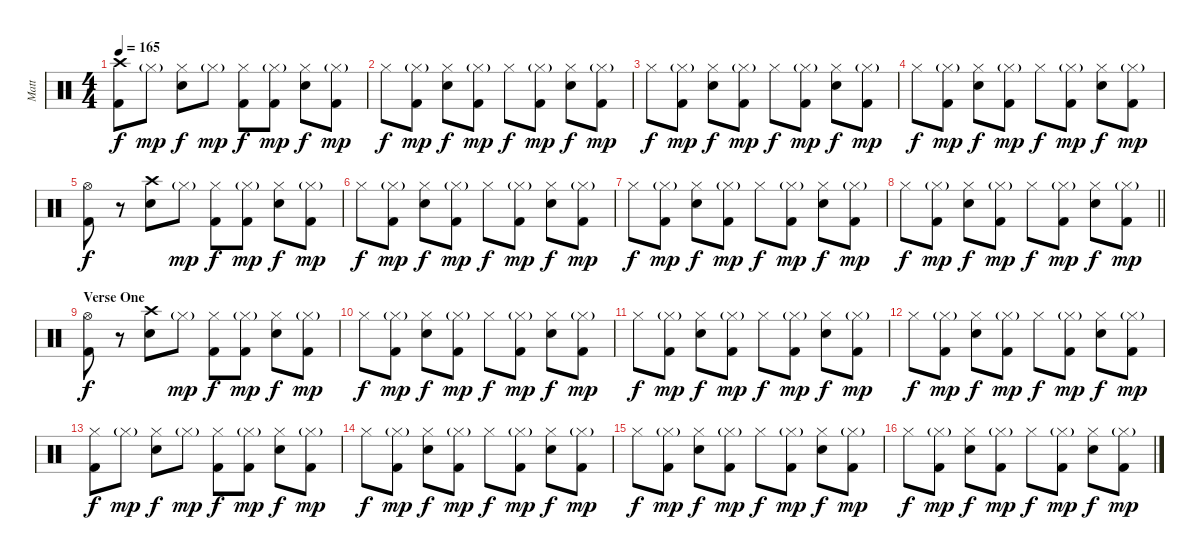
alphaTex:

\track ("Matt" "Matt") {instrument percussion}
\staff {score}
\articulation defaults
\ts (4 4)
\tempo 165
\clef neutral
\ks c
("Crash high (hit)" "Kick (hit) 2").8{dy f} "Hi-Hat (closed)"{g}.8{dy mp} ("Hi-Hat (closed)" "Snare (hit) 2").8{dy f} "Hi-Hat (closed)"{g}.8{dy mp} ("Hi-Hat (closed)" "Kick (hit) 2").8{dy f} ("Hi-Hat (closed)"{g} "Kick (hit) 2").8{dy mp} ("Hi-Hat (closed)" "Snare (hit) 2").8{dy f} ("Hi-Hat (closed)"{g} "Kick (hit) 2").8{dy mp} |
"Hi-Hat (closed)".8{dy f} ("Hi-Hat (closed)"{g} "Kick (hit) 2").8{dy mp} ("Hi-Hat (closed)" "Snare (hit) 2").8{dy f} ("Hi-Hat (closed)"{g} "Kick (hit) 2").8{dy mp} "Hi-Hat (closed)".8{dy f} ("Hi-Hat (closed)"{g} "Kick (hit) 2").8{dy mp} ("Hi-Hat (closed)" "Snare (hit) 2").8{dy f} ("Hi-Hat (closed)"{g} "Kick (hit) 2").8{dy mp} |
"Hi-Hat (closed)".8{dy f} ("Hi-Hat (closed)"{g} "Kick (hit) 2").8{dy mp} ("Hi-Hat (closed)" "Snare (hit) 2").8{dy f} ("Hi-Hat (closed)"{g} "Kick (hit) 2").8{dy mp} "Hi-Hat (closed)".8{dy f} ("Hi-Hat (closed)"{g} "Kick (hit) 2").8{dy mp} ("Hi-Hat (closed)" "Snare (hit) 2").8{dy f} ("Hi-Hat (closed)"{g} "Kick (hit) 2").8{dy mp} |
"Hi-Hat (closed)".8{dy f} ("Hi-Hat (closed)"{g} "Kick (hit) 2").8{dy mp} ("Hi-Hat (closed)" "Snare (hit) 2").8{dy f} ("Hi-Hat (closed)"{g} "Kick (hit) 2").8{dy mp} "Hi-Hat (closed)".8{dy f} ("Hi-Hat (closed)"{g} "Kick (hit) 2").8{dy mp} ("Hi-Hat (closed)" "Snare (hit) 2").8{dy f} ("Hi-Hat (closed)"{g} "Kick (hit) 2").8{dy mp} |
("Hi-Hat (open)" "Kick (hit) 2").8{dy f} r.8 ("Crash high (hit)" "Snare (hit) 2").8 "Hi-Hat (closed)"{g}.8{dy mp} ("Hi-Hat (closed)" "Kick (hit) 2").8{dy f} ("Hi-Hat (closed)"{g} "Kick (hit) 2").8{dy mp} ("Hi-Hat (closed)" "Snare (hit) 2").8{dy f} ("Hi-Hat (closed)"{g} "Kick (hit) 2").8{dy mp} |
"Hi-Hat (closed)".8{dy f} ("Hi-Hat (closed)"{g} "Kick (hit) 2").8{dy mp} ("Hi-Hat (closed)" "Snare (hit) 2").8{dy f} ("Hi-Hat (closed)"{g} "Kick (hit) 2").8{dy mp} "Hi-Hat (closed)".8{dy f} ("Hi-Hat (closed)"{g} "Kick (hit) 2").8{dy mp} ("Hi-Hat (closed)" "Snare (hit) 2").8{dy f} ("Hi-Hat (closed)"{g} "Kick (hit) 2").8{dy mp} |
"Hi-Hat (closed)".8{dy f} ("Hi-Hat (closed)"{g} "Kick (hit) 2").8{dy mp} ("Hi-Hat (closed)" "Snare (hit) 2").8{dy f} ("Hi-Hat (closed)"{g} "Kick (hit) 2").8{dy mp} "Hi-Hat (closed)".8{dy f} ("Hi-Hat (closed)"{g} "Kick (hit) 2").8{dy mp} ("Hi-Hat (closed)" "Snare (hit) 2").8{dy f} ("Hi-Hat (closed)"{g} "Kick (hit) 2").8{dy mp} |
\barLineRight lightlight "Hi-Hat (closed)".8{dy f}
("Hi-Hat (closed)"{g} "Kick (hit) 2").8{dy mp} ("Hi-Hat (closed)" "Snare (hit) 2").8{dy f} ("Hi-Hat (closed)"{g} "Kick (hit) 2").8{dy mp} "Hi-Hat (closed)".8{dy f} ("Hi-Hat (closed)"{g} "Kick (hit) 2").8{dy mp} ("Hi-Hat (closed)" "Snare (hit) 2").8{dy f} ("Hi-Hat (closed)"{g} "Kick (hit) 2").8{dy mp} |
\section ("" "Verse One")
("Hi-Hat (open)" "Kick (hit) 2").8{dy f} r.8 ("Crash high (hit)" "Snare (hit) 2").8 "Hi-Hat (closed)"{g}.8{dy mp} ("Hi-Hat (closed)" "Kick (hit) 2").8{dy f} ("Hi-Hat (closed)"{g} "Kick (hit) 2").8{dy mp} ("Hi-Hat (closed)" "Snare (hit) 2").8{dy f} ("Hi-Hat (closed)"{g} "Kick (hit) 2").8{dy mp} |
"Hi-Hat (closed)".8{dy f} ("Hi-Hat (closed)"{g} "Kick (hit) 2").8{dy mp} ("Hi-Hat (closed)" "Snare (hit) 2").8{dy f} ("Hi-Hat (closed)"{g} "Kick (hit) 2").8{dy mp} "Hi-Hat (closed)".8{dy f} ("Hi-Hat (closed)"{g} "Kick (hit) 2").8{dy mp} ("Hi-Hat (closed)" "Snare (hit) 2").8{dy f} ("Hi-Hat (closed)"{g} "Kick (hit) 2").8{dy mp} |
"Hi-Hat (closed)".8{dy f} ("Hi-Hat (closed)"{g} "Kick (hit) 2").8{dy mp} ("Hi-Hat (closed)" "Snare (hit) 2").8{dy f} ("Hi-Hat (closed)"{g} "Kick (hit) 2").8{dy mp} "Hi-Hat (closed)".8{dy f} ("Hi-Hat (closed)"{g} "Kick (hit) 2").8{dy mp} ("Hi-Hat (closed)" "Snare (hit) 2").8{dy f} ("Hi-Hat (closed)"{g} "Kick (hit) 2").8{dy mp} |
"Hi-Hat (closed)".8{dy f} ("Hi-Hat (closed)"{g} "Kick (hit) 2").8{dy mp} ("Hi-Hat (closed)" "Snare (hit) 2").8{dy f} ("Hi-Hat (closed)"{g} "Kick (hit) 2").8{dy mp} "Hi-Hat (closed)".8{dy f} ("Hi-Hat (closed)"{g} "Kick (hit) 2").8{dy mp} ("Hi-Hat (closed)" "Snare (hit) 2").8{dy f} ("Hi-Hat (closed)"{g} "Kick (hit) 2").8{dy mp} |
("Hi-Hat (closed)" "Kick (hit) 2").8{dy f} "Hi-Hat (closed)"{g}.8{dy mp} ("Hi-Hat (closed)" "Snare (hit) 2").8{dy f} "Hi-Hat (closed)"{g}.8{dy mp} ("Hi-Hat (closed)" "Kick (hit) 2").8{dy f} ("Hi-Hat (closed)"{g} "Kick (hit) 2").8{dy mp} ("Hi-Hat (closed)" "Snare (hit) 2").8{dy f} ("Hi-Hat (closed)"{g} "Kick (hit) 2").8{dy mp} |
"Hi-Hat (closed)".8{dy f} ("Hi-Hat (closed)"{g} "Kick (hit) 2").8{dy mp} ("Hi-Hat (closed)" "Snare (hit) 2").8{dy f} ("Hi-Hat (closed)"{g} "Kick (hit) 2").8{dy mp} "Hi-Hat (closed)".8{dy f} ("Hi-Hat (closed)"{g} "Kick (hit) 2").8{dy mp} ("Hi-Hat (closed)" "Snare (hit) 2").8{dy f} ("Hi-Hat (closed)"{g} "Kick (hit) 2").8{dy mp} |
"Hi-Hat (closed)".8{dy f} ("Hi-Hat (closed)"{g} "Kick (hit) 2").8{dy mp} ("Hi-Hat (closed)" "Snare (hit) 2").8{dy f} ("Hi-Hat (closed)"{g} "Kick (hit) 2").8{dy mp} "Hi-Hat (closed)".8{dy f} ("Hi-Hat (closed)"{g} "Kick (hit) 2").8{dy mp} ("Hi-Hat (closed)" "Snare (hit) 2").8{dy f} ("Hi-Hat (closed)"{g} "Kick (hit) 2").8{dy mp} |
"Hi-Hat (closed)".8{dy f} ("Hi-Hat (closed)"{g} "Kick (hit) 2").8{dy mp} ("Hi-Hat (closed)" "Snare (hit) 2").8{dy f} ("Hi-Hat (closed)"{g} "Kick (hit) 2").8{dy mp} "Hi-Hat (closed)".8{dy f} ("Hi-Hat (closed)"{g} "Kick (hit) 2").8{dy mp} ("Hi-Hat (closed)" "Snare (hit) 2").8{dy f} ("Hi-Hat (closed)"{g} "Kick (hit) 2").8{dy mp}
